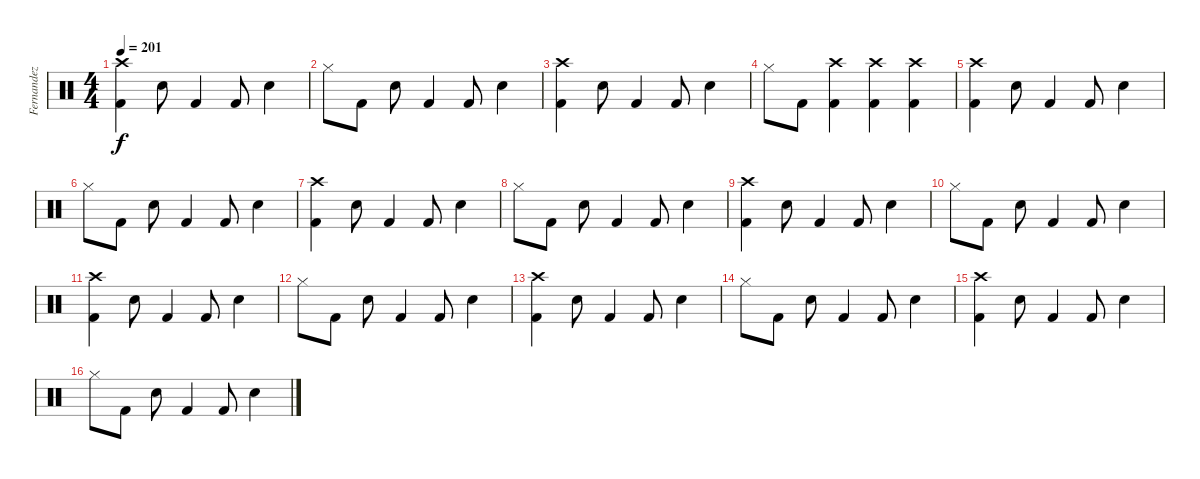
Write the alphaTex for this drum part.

\track ("Fernandez" "Fernandez") {instrument percussion}
\staff {score}
\articulation defaults
\ts (4 4)
\tempo 201
\clef neutral
\ks c
("Crash high (hit)" "Kick (hit) 2").4{dy f} "Snare (hit) 2".8 "Kick (hit) 2".4 "Kick (hit) 2".8 "Snare (hit) 2".4 |
"Hi-Hat (closed)".8 "Kick (hit) 2".8 "Snare (hit) 2".8 "Kick (hit) 2".4 "Kick (hit) 2".8 "Snare (hit) 2".4 |
("Crash high (hit)" "Kick (hit) 2").4 "Snare (hit) 2".8 "Kick (hit) 2".4 "Kick (hit) 2".8 "Snare (hit) 2".4 |
"Hi-Hat (closed)".8 "Kick (hit) 2".8 ("Crash high (hit)" "Kick (hit) 2").4 ("Crash high (hit)" "Kick (hit) 2").4 ("Crash high (hit)" "Kick (hit) 2").4 |
("Crash high (hit)" "Kick (hit) 2").4 "Snare (hit) 2".8 "Kick (hit) 2".4 "Kick (hit) 2".8 "Snare (hit) 2".4 |
"Hi-Hat (closed)".8 "Kick (hit) 2".8 "Snare (hit) 2".8 "Kick (hit) 2".4 "Kick (hit) 2".8 "Snare (hit) 2".4 |
("Crash high (hit)" "Kick (hit) 2").4 "Snare (hit) 2".8 "Kick (hit) 2".4 "Kick (hit) 2".8 "Snare (hit) 2".4 |
"Hi-Hat (closed)".8 "Kick (hit) 2".8 "Snare (hit) 2".8 "Kick (hit) 2".4 "Kick (hit) 2".8 "Snare (hit) 2".4 |
("Crash high (hit)" "Kick (hit) 2").4 "Snare (hit) 2".8 "Kick (hit) 2".4 "Kick (hit) 2".8 "Snare (hit) 2".4 |
"Hi-Hat (closed)".8 "Kick (hit) 2".8 "Snare (hit) 2".8 "Kick (hit) 2".4 "Kick (hit) 2".8 "Snare (hit) 2".4 |
("Crash high (hit)" "Kick (hit) 2").4 "Snare (hit) 2".8 "Kick (hit) 2".4 "Kick (hit) 2".8 "Snare (hit) 2".4 |
"Hi-Hat (closed)".8 "Kick (hit) 2".8 "Snare (hit) 2".8 "Kick (hit) 2".4 "Kick (hit) 2".8 "Snare (hit) 2".4 |
("Crash high (hit)" "Kick (hit) 2").4 "Snare (hit) 2".8 "Kick (hit) 2".4 "Kick (hit) 2".8 "Snare (hit) 2".4 |
"Hi-Hat (closed)".8 "Kick (hit) 2".8 "Snare (hit) 2".8 "Kick (hit) 2".4 "Kick (hit) 2".8 "Snare (hit) 2".4 |
("Crash high (hit)" "Kick (hit) 2").4 "Snare (hit) 2".8 "Kick (hit) 2".4 "Kick (hit) 2".8 "Snare (hit) 2".4 |
"Hi-Hat (closed)".8 "Kick (hit) 2".8 "Snare (hit) 2".8 "Kick (hit) 2".4 "Kick (hit) 2".8 "Snare (hit) 2".4
